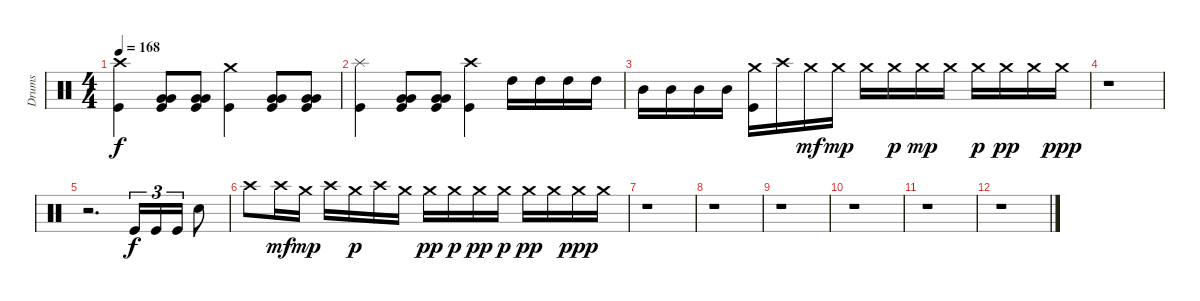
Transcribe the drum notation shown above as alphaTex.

\track ("Drums" "Drums") {instrument percussion}
\staff {score}
\articulation defaults
\ts (4 4)
\tempo 168
\clef neutral
\ks c
("Crash high (hit)" "Kick (hit)").4{dy f} ("Very Low Tom (hit)" "Very Low Tom (hit)" "Kick (hit)").8 ("Very Low Tom (hit)" "Very Low Tom (hit)" "Kick (hit)").8 ("Crash medium (hit)" "Kick (hit)").4 ("Very Low Tom (hit)" "Very Low Tom (hit)" "Kick (hit)").8 ("Very Low Tom (hit)" "Very Low Tom (hit)" "Kick (hit)").8 |
("Splash (hit)" "Kick (hit)").4 ("Very Low Tom (hit)" "Very Low Tom (hit)" "Kick (hit)").8 ("Very Low Tom (hit)" "Very Low Tom (hit)" "Kick (hit)").8 ("Crash high (hit)" "Kick (hit)").4 "High Tom (hit)".16 "High Tom (hit)".16 "High Tom (hit)".16 "High Tom (hit)".16 |
"Mid Tom (hit)".16 "Mid Tom (hit)".16 "Mid Tom (hit)".16 "Mid Tom (hit)".16 ("Crash medium (hit)" "Kick (hit)").16 "Crash high (hit)".16 "Crash medium (hit)".16{dy mf} "Crash medium (hit)".16{dy mp} "Crash medium (hit)".16 "Crash medium (hit)".16{dy p} "Crash medium (hit)".16{dy mp} "Crash medium (hit)".16 "Crash medium (hit)".16{dy p} "Crash medium (hit)".16{dy pp} "Crash medium (hit)".16 "Crash medium (hit)".16{dy ppp} |
r.1 |
r.2{d} "Kick (hit)".16{tu (3 2) dy f} "Kick (hit)".16{tu (3 2)} "Kick (hit)".16{tu (3 2)} "Electric Snare (hit)".8 |
"Crash high (hit)".8 "Crash high (hit)".16{dy mf} "Crash medium (hit)".16{dy mp} "Crash high (hit)".16 "Crash medium (hit)".16{dy p} "Crash high (hit)".16 "Crash medium (hit)".16 "Crash medium (hit)".16{dy pp} "Crash medium (hit)".16{dy p} "Crash medium (hit)".16{dy pp} "Crash medium (hit)".16{dy p} "Crash medium (hit)".16{dy pp} "Crash medium (hit)".16 "Crash medium (hit)".16{dy ppp} "Crash medium (hit)".16 |
r.1 |
r.1 |
r.1 |
r.1 |
r.1 |
r.1
